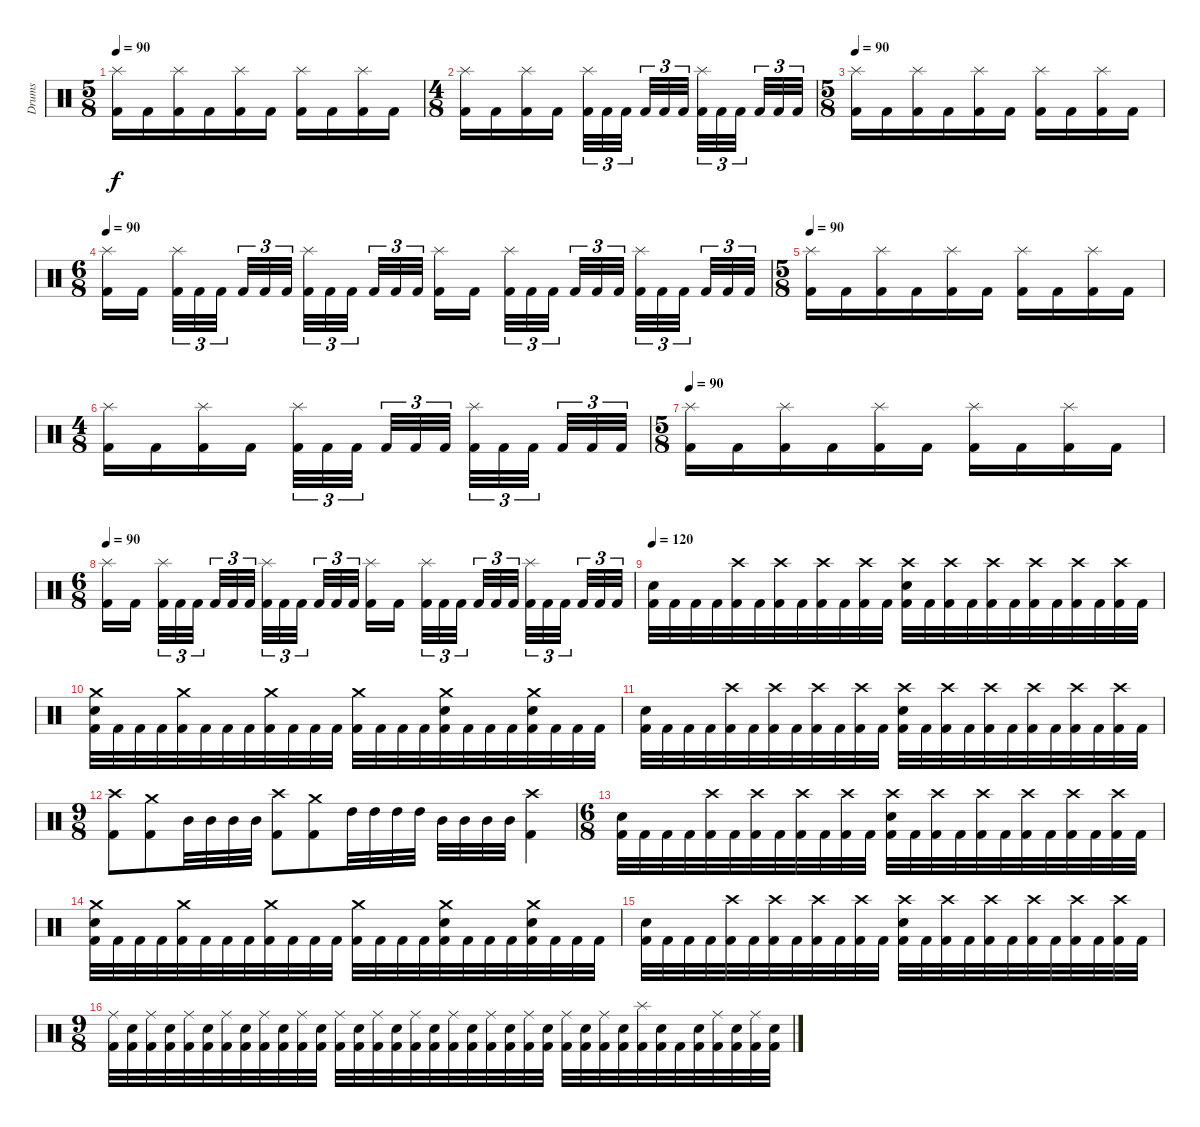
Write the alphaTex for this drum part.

\track ("Drums" "Drums") {instrument percussion}
\staff {score}
\articulation defaults
\ts (5 8)
\tempo 90
\clef neutral
\ks c
("Splash (hit)" "Kick (hit) 2").16{dy f} "Kick (hit) 2".16 ("Splash (hit)" "Kick (hit) 2").16 "Kick (hit) 2".16 ("Splash (hit)" "Kick (hit) 2").16 "Kick (hit) 2".16 ("Splash (hit)" "Kick (hit) 2").16 "Kick (hit) 2".16 ("Splash (hit)" "Kick (hit) 2").16 "Kick (hit) 2".16 |
\ts (4 8)
("Splash (hit)" "Kick (hit) 2").16 "Kick (hit) 2".16 ("Splash (hit)" "Kick (hit) 2").16 "Kick (hit) 2".16 ("Splash (hit)" "Kick (hit) 2").32{tu (3 2)} "Kick (hit) 2".32{tu (3 2)} "Kick (hit) 2".32{tu (3 2)} "Kick (hit) 2".32{tu (3 2)} "Kick (hit) 2".32{tu (3 2)} "Kick (hit) 2".32{tu (3 2)} ("Splash (hit)" "Kick (hit) 2").32{tu (3 2)} "Kick (hit) 2".32{tu (3 2)} "Kick (hit) 2".32{tu (3 2)} "Kick (hit) 2".32{tu (3 2)} "Kick (hit) 2".32{tu (3 2)} "Kick (hit) 2".32{tu (3 2)} |
\ts (5 8)
\tempo 90
("Splash (hit)" "Kick (hit) 2").16 "Kick (hit) 2".16 ("Splash (hit)" "Kick (hit) 2").16 "Kick (hit) 2".16 ("Splash (hit)" "Kick (hit) 2").16 "Kick (hit) 2".16 ("Splash (hit)" "Kick (hit) 2").16 "Kick (hit) 2".16 ("Splash (hit)" "Kick (hit) 2").16 "Kick (hit) 2".16 |
\ts (6 8)
\tempo 90
("Splash (hit)" "Kick (hit) 2").16 "Kick (hit) 2".16 ("Splash (hit)" "Kick (hit) 2").32{tu (3 2)} "Kick (hit) 2".32{tu (3 2)} "Kick (hit) 2".32{tu (3 2)} "Kick (hit) 2".32{tu (3 2)} "Kick (hit) 2".32{tu (3 2)} "Kick (hit) 2".32{tu (3 2)} ("Splash (hit)" "Kick (hit) 2").32{tu (3 2)} "Kick (hit) 2".32{tu (3 2)} "Kick (hit) 2".32{tu (3 2)} "Kick (hit) 2".32{tu (3 2)} "Kick (hit) 2".32{tu (3 2)} "Kick (hit) 2".32{tu (3 2)} ("Splash (hit)" "Kick (hit) 2").16 "Kick (hit) 2".16 ("Splash (hit)" "Kick (hit) 2").32{tu (3 2)} "Kick (hit) 2".32{tu (3 2)} "Kick (hit) 2".32{tu (3 2)} "Kick (hit) 2".32{tu (3 2)} "Kick (hit) 2".32{tu (3 2)} "Kick (hit) 2".32{tu (3 2)} ("Splash (hit)" "Kick (hit) 2").32{tu (3 2)} "Kick (hit) 2".32{tu (3 2)} "Kick (hit) 2".32{tu (3 2)} "Kick (hit) 2".32{tu (3 2)} "Kick (hit) 2".32{tu (3 2)} "Kick (hit) 2".32{tu (3 2)} |
\ts (5 8)
\tempo 90
("Splash (hit)" "Kick (hit) 2").16 "Kick (hit) 2".16 ("Splash (hit)" "Kick (hit) 2").16 "Kick (hit) 2".16 ("Splash (hit)" "Kick (hit) 2").16 "Kick (hit) 2".16 ("Splash (hit)" "Kick (hit) 2").16 "Kick (hit) 2".16 ("Splash (hit)" "Kick (hit) 2").16 "Kick (hit) 2".16 |
\ts (4 8)
("Splash (hit)" "Kick (hit) 2").16 "Kick (hit) 2".16 ("Splash (hit)" "Kick (hit) 2").16 "Kick (hit) 2".16 ("Splash (hit)" "Kick (hit) 2").32{tu (3 2)} "Kick (hit) 2".32{tu (3 2)} "Kick (hit) 2".32{tu (3 2)} "Kick (hit) 2".32{tu (3 2)} "Kick (hit) 2".32{tu (3 2)} "Kick (hit) 2".32{tu (3 2)} ("Splash (hit)" "Kick (hit) 2").32{tu (3 2)} "Kick (hit) 2".32{tu (3 2)} "Kick (hit) 2".32{tu (3 2)} "Kick (hit) 2".32{tu (3 2)} "Kick (hit) 2".32{tu (3 2)} "Kick (hit) 2".32{tu (3 2)} |
\ts (5 8)
\tempo 90
("Splash (hit)" "Kick (hit) 2").16 "Kick (hit) 2".16 ("Splash (hit)" "Kick (hit) 2").16 "Kick (hit) 2".16 ("Splash (hit)" "Kick (hit) 2").16 "Kick (hit) 2".16 ("Splash (hit)" "Kick (hit) 2").16 "Kick (hit) 2".16 ("Splash (hit)" "Kick (hit) 2").16 "Kick (hit) 2".16 |
\ts (6 8)
\tempo 90
("Splash (hit)" "Kick (hit) 2").16 "Kick (hit) 2".16 ("Splash (hit)" "Kick (hit) 2").32{tu (3 2)} "Kick (hit) 2".32{tu (3 2)} "Kick (hit) 2".32{tu (3 2)} "Kick (hit) 2".32{tu (3 2)} "Kick (hit) 2".32{tu (3 2)} "Kick (hit) 2".32{tu (3 2)} ("Splash (hit)" "Kick (hit) 2").32{tu (3 2)} "Kick (hit) 2".32{tu (3 2)} "Kick (hit) 2".32{tu (3 2)} "Kick (hit) 2".32{tu (3 2)} "Kick (hit) 2".32{tu (3 2)} "Kick (hit) 2".32{tu (3 2)} ("Splash (hit)" "Kick (hit) 2").16 "Kick (hit) 2".16 ("Splash (hit)" "Kick (hit) 2").32{tu (3 2)} "Kick (hit) 2".32{tu (3 2)} "Kick (hit) 2".32{tu (3 2)} "Kick (hit) 2".32{tu (3 2)} "Kick (hit) 2".32{tu (3 2)} "Kick (hit) 2".32{tu (3 2)} ("Splash (hit)" "Kick (hit) 2").32{tu (3 2)} "Kick (hit) 2".32{tu (3 2)} "Kick (hit) 2".32{tu (3 2)} "Kick (hit) 2".32{tu (3 2)} "Kick (hit) 2".32{tu (3 2)} "Kick (hit) 2".32{tu (3 2)} |
\tempo 120
("Snare (hit) 2" "Kick (hit) 2").32 "Kick (hit) 2".32 "Kick (hit) 2".32 "Kick (hit) 2".32 ("Crash high (hit)" "Kick (hit) 2").32 "Kick (hit) 2".32 ("Crash high (hit)" "Kick (hit) 2").32 "Kick (hit) 2".32 ("Crash high (hit)" "Kick (hit) 2").32 "Kick (hit) 2".32 ("Crash high (hit)" "Kick (hit) 2").32 "Kick (hit) 2".32 ("Crash high (hit)" "Snare (hit) 2" "Kick (hit) 2").32 "Kick (hit) 2".32 ("Crash high (hit)" "Kick (hit) 2").32 "Kick (hit) 2".32 ("Crash high (hit)" "Kick (hit) 2").32 "Kick (hit) 2".32 ("Crash high (hit)" "Kick (hit) 2").32 "Kick (hit) 2".32 ("Crash high (hit)" "Kick (hit) 2").32 "Kick (hit) 2".32 ("Crash high (hit)" "Kick (hit) 2").32 "Kick (hit) 2".32 |
("Crash medium (hit)" "Snare (hit) 2" "Kick (hit) 2").32 "Kick (hit) 2".32 "Kick (hit) 2".32 "Kick (hit) 2".32 ("Crash medium (hit)" "Kick (hit) 2").32 "Kick (hit) 2".32 "Kick (hit) 2".32 "Kick (hit) 2".32 ("Crash medium (hit)" "Kick (hit) 2").32 "Kick (hit) 2".32 "Kick (hit) 2".32 "Kick (hit) 2".32 ("Crash medium (hit)" "Kick (hit) 2").32 "Kick (hit) 2".32 "Kick (hit) 2".32 "Kick (hit) 2".32 ("Crash medium (hit)" "Snare (hit) 2" "Kick (hit) 2").32 "Kick (hit) 2".32 "Kick (hit) 2".32 "Kick (hit) 2".32 ("Crash medium (hit)" "Snare (hit) 2" "Kick (hit) 2").32 "Kick (hit) 2".32 "Kick (hit) 2".32 "Kick (hit) 2".32 |
("Snare (hit) 2" "Kick (hit) 2").32 "Kick (hit) 2".32 "Kick (hit) 2".32 "Kick (hit) 2".32 ("Crash high (hit)" "Kick (hit) 2").32 "Kick (hit) 2".32 ("Crash high (hit)" "Kick (hit) 2").32 "Kick (hit) 2".32 ("Crash high (hit)" "Kick (hit) 2").32 "Kick (hit) 2".32 ("Crash high (hit)" "Kick (hit) 2").32 "Kick (hit) 2".32 ("Crash high (hit)" "Snare (hit) 2" "Kick (hit) 2").32 "Kick (hit) 2".32 ("Crash high (hit)" "Kick (hit) 2").32 "Kick (hit) 2".32 ("Crash high (hit)" "Kick (hit) 2").32 "Kick (hit) 2".32 ("Crash high (hit)" "Kick (hit) 2").32 "Kick (hit) 2".32 ("Crash high (hit)" "Kick (hit) 2").32 "Kick (hit) 2".32 ("Crash high (hit)" "Kick (hit) 2").32 "Kick (hit) 2".32 |
\ts (9 8)
("Crash high (hit)" "Kick (hit) 2").8 ("Crash medium (hit)" "Kick (hit) 2").8 "Mid Tom (hit)".32 "Mid Tom (hit)".32 "Mid Tom (hit)".32 "Mid Tom (hit)".32 ("Crash high (hit)" "Kick (hit) 2").8 ("Crash medium (hit)" "Kick (hit) 2").8 "High Tom (hit)".32 "High Tom (hit)".32 "High Tom (hit)".32 "High Tom (hit)".32 "Mid Tom (hit)".32 "Mid Tom (hit)".32 "Mid Tom (hit)".32 "Mid Tom (hit)".32 ("Crash high (hit)" "Kick (hit) 2").4 |
\ts (6 8)
("Snare (hit) 2" "Kick (hit) 2").32 "Kick (hit) 2".32 "Kick (hit) 2".32 "Kick (hit) 2".32 ("Crash high (hit)" "Kick (hit) 2").32 "Kick (hit) 2".32 ("Crash high (hit)" "Kick (hit) 2").32 "Kick (hit) 2".32 ("Crash high (hit)" "Kick (hit) 2").32 "Kick (hit) 2".32 ("Crash high (hit)" "Kick (hit) 2").32 "Kick (hit) 2".32 ("Crash high (hit)" "Snare (hit) 2" "Kick (hit) 2").32 "Kick (hit) 2".32 ("Crash high (hit)" "Kick (hit) 2").32 "Kick (hit) 2".32 ("Crash high (hit)" "Kick (hit) 2").32 "Kick (hit) 2".32 ("Crash high (hit)" "Kick (hit) 2").32 "Kick (hit) 2".32 ("Crash high (hit)" "Kick (hit) 2").32 "Kick (hit) 2".32 ("Crash high (hit)" "Kick (hit) 2").32 "Kick (hit) 2".32 |
("Crash medium (hit)" "Snare (hit) 2" "Kick (hit) 2").32 "Kick (hit) 2".32 "Kick (hit) 2".32 "Kick (hit) 2".32 ("Crash medium (hit)" "Kick (hit) 2").32 "Kick (hit) 2".32 "Kick (hit) 2".32 "Kick (hit) 2".32 ("Crash medium (hit)" "Kick (hit) 2").32 "Kick (hit) 2".32 "Kick (hit) 2".32 "Kick (hit) 2".32 ("Crash medium (hit)" "Kick (hit) 2").32 "Kick (hit) 2".32 "Kick (hit) 2".32 "Kick (hit) 2".32 ("Crash medium (hit)" "Snare (hit) 2" "Kick (hit) 2").32 "Kick (hit) 2".32 "Kick (hit) 2".32 "Kick (hit) 2".32 ("Crash medium (hit)" "Snare (hit) 2" "Kick (hit) 2").32 "Kick (hit) 2".32 "Kick (hit) 2".32 "Kick (hit) 2".32 |
("Snare (hit) 2" "Kick (hit) 2").32 "Kick (hit) 2".32 "Kick (hit) 2".32 "Kick (hit) 2".32 ("Crash high (hit)" "Kick (hit) 2").32 "Kick (hit) 2".32 ("Crash high (hit)" "Kick (hit) 2").32 "Kick (hit) 2".32 ("Crash high (hit)" "Kick (hit) 2").32 "Kick (hit) 2".32 ("Crash high (hit)" "Kick (hit) 2").32 "Kick (hit) 2".32 ("Crash high (hit)" "Snare (hit) 2" "Kick (hit) 2").32 "Kick (hit) 2".32 ("Crash high (hit)" "Kick (hit) 2").32 "Kick (hit) 2".32 ("Crash high (hit)" "Kick (hit) 2").32 "Kick (hit) 2".32 ("Crash high (hit)" "Kick (hit) 2").32 "Kick (hit) 2".32 ("Crash high (hit)" "Kick (hit) 2").32 "Kick (hit) 2".32 ("Crash high (hit)" "Kick (hit) 2").32 "Kick (hit) 2".32 |
\ts (9 8)
("Ride (middle)" "Kick (hit) 2").32 ("Snare (hit) 2" "Kick (hit) 2").32 ("Ride (middle)" "Kick (hit) 2").32 ("Snare (hit) 2" "Kick (hit) 2").32 ("Ride (middle)" "Kick (hit) 2").32 ("Snare (hit) 2" "Kick (hit) 2").32 ("Ride (middle)" "Kick (hit) 2").32 ("Snare (hit) 2" "Kick (hit) 2").32 ("Ride (middle)" "Kick (hit) 2").32 ("Snare (hit) 2" "Kick (hit) 2").32 ("Ride (middle)" "Kick (hit) 2").32 ("Snare (hit) 2" "Kick (hit) 2").32 ("Ride (middle)" "Kick (hit) 2").32 ("Snare (hit) 2" "Kick (hit) 2").32 ("Ride (middle)" "Kick (hit) 2").32 ("Snare (hit) 2" "Kick (hit) 2").32 ("Ride (middle)" "Kick (hit) 2").32 ("Snare (hit) 2" "Kick (hit) 2").32 ("Ride (middle)" "Kick (hit) 2").32 ("Snare (hit) 2" "Kick (hit) 2").32 ("Ride (middle)" "Kick (hit) 2").32 ("Snare (hit) 2" "Kick (hit) 2").32 ("Ride (middle)" "Kick (hit) 2").32 ("Snare (hit) 2" "Kick (hit) 2").32 ("Ride (middle)" "Kick (hit) 2").32 ("Snare (hit) 2" "Kick (hit) 2").32 ("Ride (middle)" "Kick (hit) 2").32 ("Snare (hit) 2" "Kick (hit) 2").32 ("Splash (hit)" "Kick (hit) 2").32 ("Snare (hit) 2" "Kick (hit) 2").32 "Kick (hit) 2".32 ("Snare (hit) 2" "Kick (hit) 2").32 ("Ride (middle)" "Kick (hit) 2").32 ("Snare (hit) 2" "Kick (hit) 2").32 ("Ride (middle)" "Kick (hit) 2").32 ("Snare (hit) 2" "Kick (hit) 2").32
